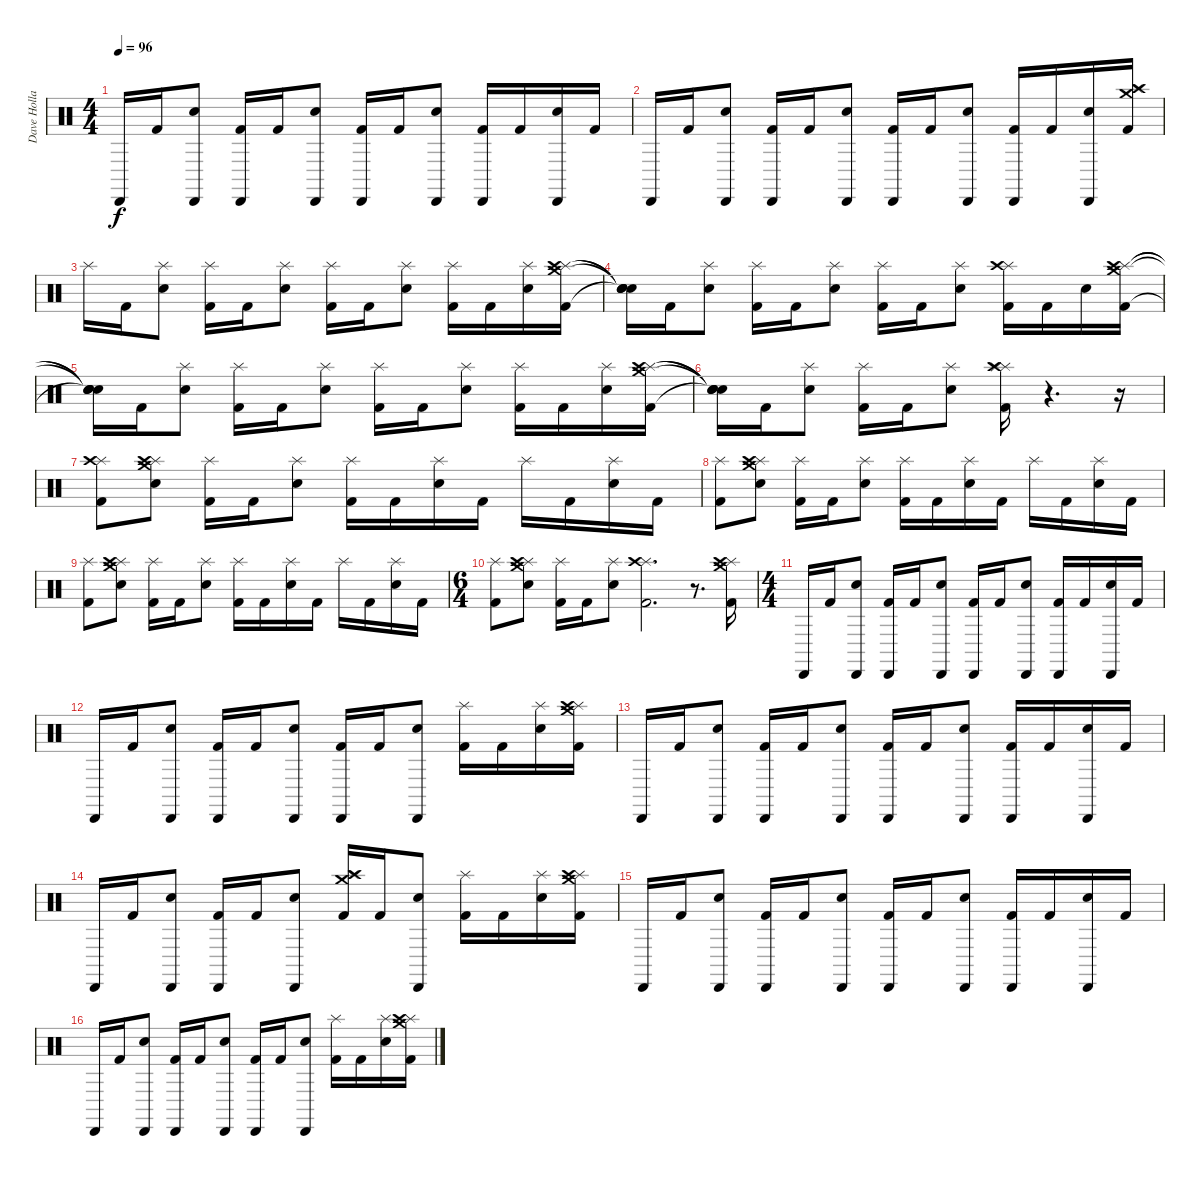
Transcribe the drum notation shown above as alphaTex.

\track ("Dave Holland" "Dave Holla") {instrument percussion}
\staff {score}
\articulation defaults
\ts (4 4)
\tempo 96
\clef neutral
\ks c "Cabasa (hit)".16{dy f} "Kick (hit) 2".16
("Cabasa (hit)" "Snare (hit) 2").8 ("Cabasa (hit)" "Kick (hit) 2").16 "Kick (hit) 2".16 ("Cabasa (hit)" "Snare (hit) 2").8 ("Cabasa (hit)" "Kick (hit) 2").16 "Kick (hit) 2".16 ("Cabasa (hit)" "Snare (hit) 2").8 ("Cabasa (hit)" "Kick (hit) 2").16 "Kick (hit) 2".16 ("Cabasa (hit)" "Snare (hit) 2").16 "Kick (hit) 2".16 |
"Cabasa (hit)".16 "Kick (hit) 2".16 ("Cabasa (hit)" "Snare (hit) 2").8 ("Cabasa (hit)" "Kick (hit) 2").16 "Kick (hit) 2".16 ("Cabasa (hit)" "Snare (hit) 2").8 ("Cabasa (hit)" "Kick (hit) 2").16 "Kick (hit) 2".16 ("Cabasa (hit)" "Snare (hit) 2").8 ("Cabasa (hit)" "Kick (hit) 2").16 "Kick (hit) 2".16 ("Cabasa (hit)" "Snare (hit) 2").16 ("Crash medium (hit)" "Splash (hit)" "Crash high (hit)" "Kick (hit) 2").16 |
"Splash (hit)".16 "Kick (hit) 2".16 ("Splash (hit)" "Snare (hit) 2").8 ("Splash (hit)" "Kick (hit) 2").16 "Kick (hit) 2".16 ("Splash (hit)" "Snare (hit) 2").8 ("Splash (hit)" "Kick (hit) 2").16 "Kick (hit) 2".16 ("Splash (hit)" "Snare (hit) 2").8 ("Splash (hit)" "Kick (hit) 2").16 "Kick (hit) 2".16 ("Splash (hit)" "Snare (hit) 2").16 ("Crash medium (hit)" "Splash (hit)" "Crash high (hit)" "Kick (hit) 2").16 |
("Snare (hit)"{t} "Snare (hit)"{t} "Snare (hit)"{t} "Snare (hit)"{t}).16 "Kick (hit) 2".16 ("Splash (hit)" "Snare (hit) 2").8 ("Splash (hit)" "Kick (hit) 2").16 "Kick (hit) 2".16 ("Splash (hit)" "Snare (hit) 2").8 ("Splash (hit)" "Kick (hit) 2").16 "Kick (hit) 2".16 ("Splash (hit)" "Snare (hit) 2").8 ("Splash (hit)" "Crash high (hit)" "Kick (hit) 2").16 "Kick (hit) 2".16 "Snare (hit) 2".16 ("Crash medium (hit)" "Splash (hit)" "Crash high (hit)" "Kick (hit) 2").16 |
("Snare (hit)"{t} "Snare (hit)"{t} "Snare (hit)"{t} "Snare (hit)"{t}).16 "Kick (hit) 2".16 ("Splash (hit)" "Snare (hit) 2").8 ("Splash (hit)" "Kick (hit) 2").16 "Kick (hit) 2".16 ("Splash (hit)" "Snare (hit) 2").8 ("Splash (hit)" "Kick (hit) 2").16 "Kick (hit) 2".16 ("Splash (hit)" "Snare (hit) 2").8 ("Splash (hit)" "Kick (hit) 2").16 "Kick (hit) 2".16 ("Splash (hit)" "Snare (hit) 2").16 ("Crash medium (hit)" "Splash (hit)" "Crash high (hit)" "Kick (hit) 2").16 |
("Snare (hit)"{t} "Snare (hit)"{t} "Snare (hit)"{t} "Snare (hit)"{t}).16 "Kick (hit) 2".16 ("Splash (hit)" "Snare (hit) 2").8 ("Splash (hit)" "Kick (hit) 2").16 "Kick (hit) 2".16 ("Splash (hit)" "Snare (hit) 2").8 ("Splash (hit)" "Splash (hit)" "Crash high (hit)" "Kick (hit) 2").16 r.4{d} r.16 |
("Splash (hit)" "Crash high (hit)" "Kick (hit) 2").8 ("Crash medium (hit)" "Splash (hit)" "Crash high (hit)" "Snare (hit) 2").8 ("Splash (hit)" "Kick (hit) 2").16 "Kick (hit) 2".16 ("Splash (hit)" "Snare (hit) 2").8 ("Splash (hit)" "Kick (hit) 2").16 "Kick (hit) 2".16 ("Splash (hit)" "Snare (hit) 2").16 "Kick (hit) 2".16 "Splash (hit)".16 "Kick (hit) 2".16 ("Splash (hit)" "Snare (hit) 2").16 "Kick (hit) 2".16 |
("Splash (hit)" "Kick (hit) 2").8 ("Crash medium (hit)" "Splash (hit)" "Crash high (hit)" "Snare (hit) 2").8 ("Splash (hit)" "Kick (hit) 2").16 "Kick (hit) 2".16 ("Splash (hit)" "Snare (hit) 2").8 ("Splash (hit)" "Kick (hit) 2").16 "Kick (hit) 2".16 ("Splash (hit)" "Snare (hit) 2").16 "Kick (hit) 2".16 "Splash (hit)".16 "Kick (hit) 2".16 ("Splash (hit)" "Snare (hit) 2").16 "Kick (hit) 2".16 |
("Splash (hit)" "Kick (hit) 2").8 ("Crash medium (hit)" "Splash (hit)" "Crash high (hit)" "Snare (hit) 2").8 ("Splash (hit)" "Kick (hit) 2").16 "Kick (hit) 2".16 ("Splash (hit)" "Snare (hit) 2").8 ("Splash (hit)" "Kick (hit) 2").16 "Kick (hit) 2".16 ("Splash (hit)" "Snare (hit) 2").16 "Kick (hit) 2".16 "Splash (hit)".16 "Kick (hit) 2".16 ("Splash (hit)" "Snare (hit) 2").16 "Kick (hit) 2".16 |
\ts (6 4)
("Splash (hit)" "Kick (hit) 2").8 ("Crash medium (hit)" "Splash (hit)" "Crash high (hit)" "Snare (hit) 2").8 ("Splash (hit)" "Kick (hit) 2").16 "Kick (hit) 2".16 ("Splash (hit)" "Snare (hit) 2").8 ("Splash (hit)" "Crash high (hit)" "Kick (hit) 2").2{d} r.8{d} ("Crash medium (hit)" "Splash (hit)" "Crash high (hit)" "Kick (hit) 2").16 |
\ts (4 4)
"Cabasa (hit)".16 "Kick (hit) 2".16 ("Cabasa (hit)" "Snare (hit) 2").8 ("Cabasa (hit)" "Kick (hit) 2").16 "Kick (hit) 2".16 ("Cabasa (hit)" "Snare (hit) 2").8 ("Cabasa (hit)" "Kick (hit) 2").16 "Kick (hit) 2".16 ("Cabasa (hit)" "Snare (hit) 2").8 ("Cabasa (hit)" "Kick (hit) 2").16 "Kick (hit) 2".16 ("Cabasa (hit)" "Snare (hit) 2").16 "Kick (hit) 2".16 |
"Cabasa (hit)".16 "Kick (hit) 2".16 ("Cabasa (hit)" "Snare (hit) 2").8 ("Cabasa (hit)" "Kick (hit) 2").16 "Kick (hit) 2".16 ("Cabasa (hit)" "Snare (hit) 2").8 ("Cabasa (hit)" "Kick (hit) 2").16 "Kick (hit) 2".16 ("Cabasa (hit)" "Snare (hit) 2").8 ("Splash (hit)" "Kick (hit) 2").16 "Kick (hit) 2".16 ("Splash (hit)" "Snare (hit) 2").16 ("Crash medium (hit)" "Splash (hit)" "Crash high (hit)" "Kick (hit) 2").16 |
"Cabasa (hit)".16 "Kick (hit) 2".16 ("Cabasa (hit)" "Snare (hit) 2").8 ("Cabasa (hit)" "Kick (hit) 2").16 "Kick (hit) 2".16 ("Cabasa (hit)" "Snare (hit) 2").8 ("Cabasa (hit)" "Kick (hit) 2").16 "Kick (hit) 2".16 ("Cabasa (hit)" "Snare (hit) 2").8 ("Cabasa (hit)" "Kick (hit) 2").16 "Kick (hit) 2".16 ("Cabasa (hit)" "Snare (hit) 2").16 "Kick (hit) 2".16 |
"Cabasa (hit)".16 "Kick (hit) 2".16 ("Cabasa (hit)" "Snare (hit) 2").8 ("Cabasa (hit)" "Kick (hit) 2").16 "Kick (hit) 2".16 ("Cabasa (hit)" "Snare (hit) 2").8 ("Crash medium (hit)" "Splash (hit)" "Crash high (hit)" "Kick (hit) 2").16 "Kick (hit) 2".16 ("Cabasa (hit)" "Snare (hit) 2").8 ("Splash (hit)" "Kick (hit) 2").16 "Kick (hit) 2".16 ("Splash (hit)" "Snare (hit) 2").16 ("Crash medium (hit)" "Splash (hit)" "Crash high (hit)" "Kick (hit) 2").16 |
"Cabasa (hit)".16 "Kick (hit) 2".16 ("Cabasa (hit)" "Snare (hit) 2").8 ("Cabasa (hit)" "Kick (hit) 2").16 "Kick (hit) 2".16 ("Cabasa (hit)" "Snare (hit) 2").8 ("Cabasa (hit)" "Kick (hit) 2").16 "Kick (hit) 2".16 ("Cabasa (hit)" "Snare (hit) 2").8 ("Cabasa (hit)" "Kick (hit) 2").16 "Kick (hit) 2".16 ("Cabasa (hit)" "Snare (hit) 2").16 "Kick (hit) 2".16 |
"Cabasa (hit)".16 "Kick (hit) 2".16 ("Cabasa (hit)" "Snare (hit) 2").8 ("Cabasa (hit)" "Kick (hit) 2").16 "Kick (hit) 2".16 ("Cabasa (hit)" "Snare (hit) 2").8 ("Cabasa (hit)" "Kick (hit) 2").16 "Kick (hit) 2".16 ("Cabasa (hit)" "Snare (hit) 2").8 ("Splash (hit)" "Kick (hit) 2").16 "Kick (hit) 2".16 ("Splash (hit)" "Snare (hit) 2").16 ("Crash medium (hit)" "Splash (hit)" "Crash high (hit)" "Kick (hit) 2").16
